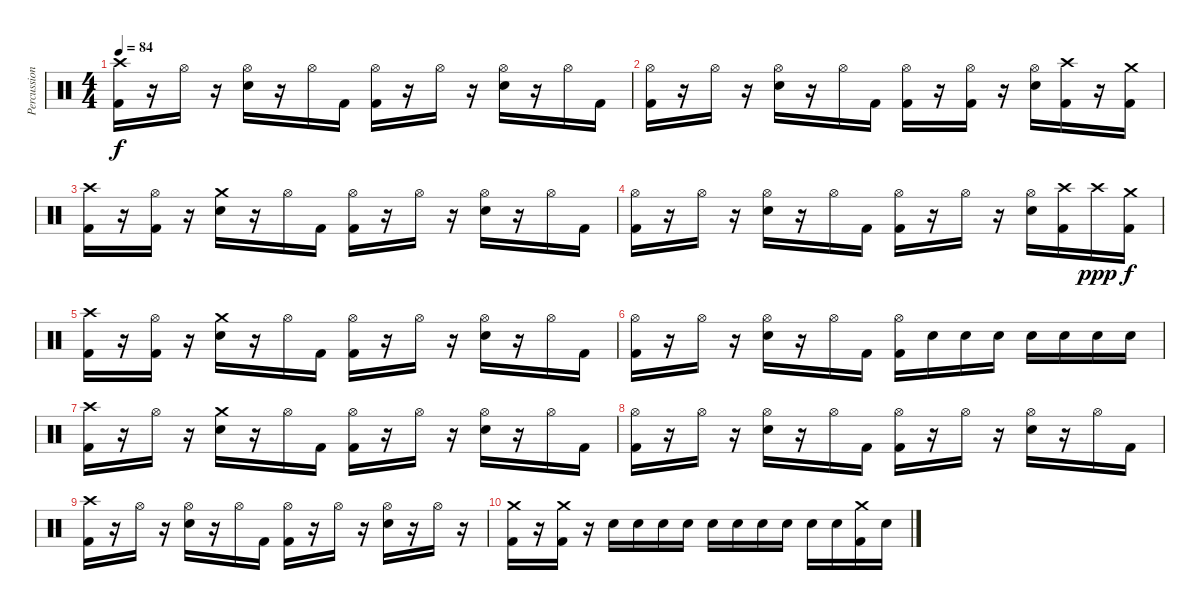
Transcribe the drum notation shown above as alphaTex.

\track ("Percussion" "Percussion") {instrument percussion}
\staff {score}
\articulation defaults
\ts (4 4)
\tempo 84
\clef neutral
\ks c
("Crash high (hit)" "Kick (hit) 2").16{dy f} r.16 "Hi-Hat (open)".16 r.16 ("Hi-Hat (open)" "Electric Snare (hit)").16 r.16 "Hi-Hat (open)".16 "Kick (hit) 2".16 ("Hi-Hat (open)" "Kick (hit) 2").16 r.16 "Hi-Hat (open)".16 r.16 ("Hi-Hat (open)" "Electric Snare (hit)").16 r.16 "Hi-Hat (open)".16 "Kick (hit) 2".16 |
("Hi-Hat (open)" "Kick (hit) 2").16 r.16 "Hi-Hat (open)".16 r.16 ("Hi-Hat (open)" "Electric Snare (hit)").16 r.16 "Hi-Hat (open)".16 "Kick (hit) 2".16 ("Hi-Hat (open)" "Kick (hit) 2").16 r.16 ("Hi-Hat (open)" "Kick (hit) 2").16 r.16 ("Hi-Hat (open)" "Electric Snare (hit)").16 ("Crash high (hit)" "Kick (hit) 2").16 r.16 ("Crash medium (hit)" "Kick (hit) 2").16 |
("Crash high (hit)" "Kick (hit) 2").16 r.16 ("Hi-Hat (open)" "Kick (hit) 2").16 r.16 ("Crash medium (hit)" "Electric Snare (hit)").16 r.16 "Hi-Hat (open)".16 "Kick (hit) 2".16 ("Hi-Hat (open)" "Kick (hit) 2").16 r.16 "Hi-Hat (open)".16 r.16 ("Hi-Hat (open)" "Electric Snare (hit)").16 r.16 "Hi-Hat (open)".16 "Kick (hit) 2".16 |
("Hi-Hat (open)" "Kick (hit) 2").16 r.16 "Hi-Hat (open)".16 r.16 ("Hi-Hat (open)" "Electric Snare (hit)").16 r.16 "Hi-Hat (open)".16 "Kick (hit) 2".16 ("Hi-Hat (open)" "Kick (hit) 2").16 r.16 "Hi-Hat (open)".16 r.16 ("Hi-Hat (open)" "Electric Snare (hit)").16 ("Crash high (hit)" "Kick (hit) 2").16 "Crash high (hit)".16{dy ppp} ("Crash medium (hit)" "Kick (hit) 2").16{dy f} |
("Crash high (hit)" "Kick (hit) 2").16 r.16 ("Hi-Hat (open)" "Kick (hit) 2").16 r.16 ("Crash medium (hit)" "Electric Snare (hit)").16 r.16 "Hi-Hat (open)".16 "Kick (hit) 2".16 ("Hi-Hat (open)" "Kick (hit) 2").16 r.16 "Hi-Hat (open)".16 r.16 ("Hi-Hat (open)" "Electric Snare (hit)").16 r.16 "Hi-Hat (open)".16 "Kick (hit) 2".16 |
("Hi-Hat (open)" "Kick (hit) 2").16 r.16 "Hi-Hat (open)".16 r.16 ("Hi-Hat (open)" "Electric Snare (hit)").16 r.16 "Hi-Hat (open)".16 "Kick (hit) 2".16 ("Hi-Hat (open)" "Kick (hit) 2").16 "Electric Snare (hit)".16 "Electric Snare (hit)".16 "Electric Snare (hit)".16 "Electric Snare (hit)".16 "Electric Snare (hit)".16 "Electric Snare (hit)".16 "Electric Snare (hit)".16 |
("Crash high (hit)" "Kick (hit) 2").16{volume 0} r.16 "Hi-Hat (open)".16 r.16 ("Crash medium (hit)" "Electric Snare (hit)").16 r.16 "Hi-Hat (open)".16 "Kick (hit) 2".16 ("Hi-Hat (open)" "Kick (hit) 2").16 r.16 "Hi-Hat (open)".16 r.16 ("Hi-Hat (open)" "Electric Snare (hit)").16 r.16 "Hi-Hat (open)".16 "Kick (hit) 2".16 |
("Hi-Hat (open)" "Kick (hit) 2").16 r.16 "Hi-Hat (open)".16 r.16 ("Hi-Hat (open)" "Electric Snare (hit)").16 r.16 "Hi-Hat (open)".16 "Kick (hit) 2".16 ("Hi-Hat (open)" "Kick (hit) 2").16 r.16 "Hi-Hat (open)".16 r.16 ("Hi-Hat (open)" "Electric Snare (hit)").16 r.16 "Hi-Hat (open)".16 "Kick (hit) 2".16 |
("Crash high (hit)" "Kick (hit) 2").16 r.16 "Hi-Hat (open)".16 r.16 ("Hi-Hat (open)" "Electric Snare (hit)").16 r.16 "Hi-Hat (open)".16 "Kick (hit) 2".16 ("Hi-Hat (open)" "Kick (hit) 2").16 r.16 "Hi-Hat (open)".16 r.16 ("Hi-Hat (open)" "Electric Snare (hit)").16 r.16 "Hi-Hat (open)".16 r.16 |
("Crash medium (hit)" "Kick (hit) 2").16 r.16 ("Crash medium (hit)" "Kick (hit) 2").16 r.16 "Electric Snare (hit)".16 "Electric Snare (hit)".16 "Electric Snare (hit)".16 "Electric Snare (hit)".16 "Electric Snare (hit)".16 "Electric Snare (hit)".16 "Electric Snare (hit)".16 "Electric Snare (hit)".16 "Electric Snare (hit)".16 "Electric Snare (hit)".16 ("Crash medium (hit)" "Kick (hit) 2").16 "Electric Snare (hit)".16
